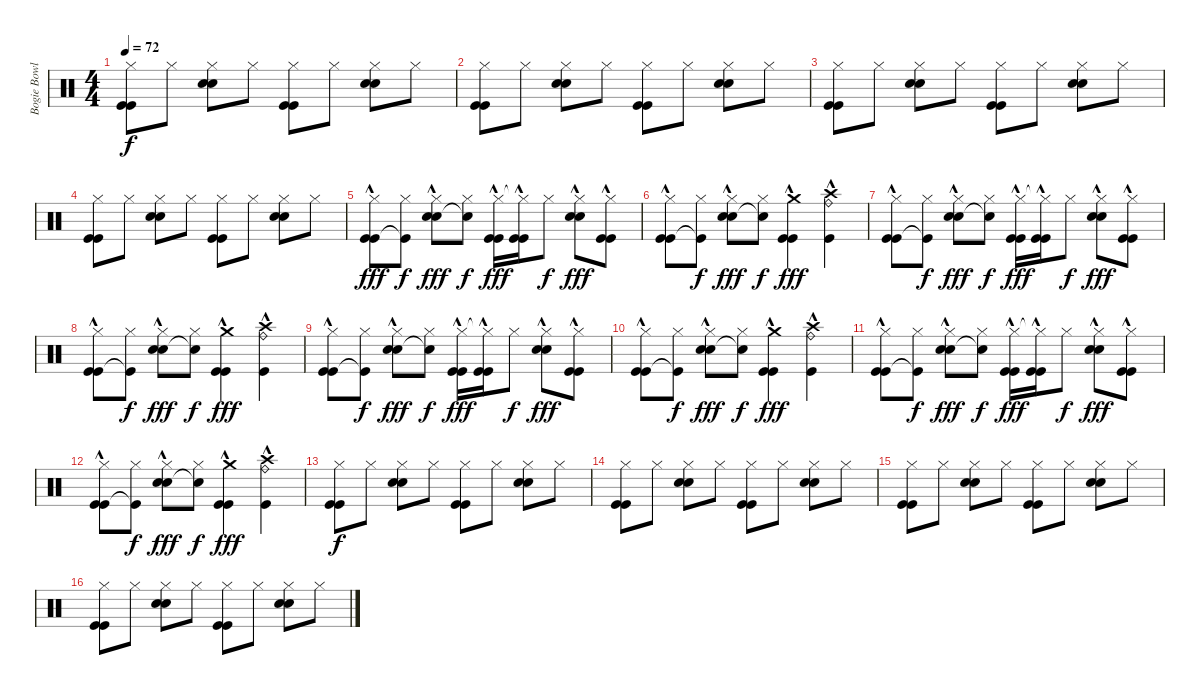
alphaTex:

\track ("Bogie Bowles" "Bogie Bowl") {instrument percussion}
\staff {score}
\articulation defaults
\ts (4 4)
\tempo 72
\clef neutral
\ks c
("Hi-Hat (closed)" "Kick (hit)" "Kick (hit)").8{dy f} "Hi-Hat (closed)".8 ("Hi-Hat (closed)" "Snare (hit) 2" "Snare (hit) 2").8 "Hi-Hat (closed)".8 ("Hi-Hat (closed)" "Kick (hit)" "Kick (hit)").8 "Hi-Hat (closed)".8 ("Hi-Hat (closed)" "Snare (hit) 2" "Snare (hit) 2").8 "Hi-Hat (closed)".8 |
("Hi-Hat (closed)" "Kick (hit)" "Kick (hit)").8 "Hi-Hat (closed)".8 ("Hi-Hat (closed)" "Snare (hit) 2" "Snare (hit) 2").8 "Hi-Hat (closed)".8 ("Hi-Hat (closed)" "Kick (hit)" "Kick (hit)").8 "Hi-Hat (closed)".8 ("Hi-Hat (closed)" "Snare (hit) 2" "Snare (hit) 2").8 "Hi-Hat (closed)".8 |
("Hi-Hat (closed)" "Kick (hit)" "Kick (hit)").8 "Hi-Hat (closed)".8 ("Hi-Hat (closed)" "Snare (hit) 2" "Snare (hit) 2").8 "Hi-Hat (closed)".8 ("Hi-Hat (closed)" "Kick (hit)" "Kick (hit)").8 "Hi-Hat (closed)".8 ("Hi-Hat (closed)" "Snare (hit) 2" "Snare (hit) 2").8 "Hi-Hat (closed)".8 |
("Hi-Hat (closed)" "Kick (hit)" "Kick (hit)").8 "Hi-Hat (closed)".8 ("Hi-Hat (closed)" "Snare (hit) 2" "Snare (hit) 2").8 "Hi-Hat (closed)".8 ("Hi-Hat (closed)" "Kick (hit)" "Kick (hit)").8 "Hi-Hat (closed)".8 ("Hi-Hat (closed)" "Snare (hit) 2" "Snare (hit) 2").8 "Hi-Hat (closed)".8 |
("Hi-Hat (closed)" "Kick (hit)"{hac} "Kick (hit)"{hac}).8{dy fff} ("Hi-Hat (closed)" "Kick (hit)"{t}).8{dy f} ("Hi-Hat (closed)" "Snare (hit) 2"{hac} "Snare (hit) 2"{hac}).8{dy fff} ("Hi-Hat (closed)" "Snare (hit) 2"{t}).8{dy f} ("Hi-Hat (closed)" "Kick (hit)"{hac} "Kick (hit)"{hac}).16{dy fff} ("Hi-Hat (closed)"{t} "Kick (hit)"{hac} "Kick (hit)"{hac}).16 "Hi-Hat (closed)".8{dy f} ("Hi-Hat (closed)" "Snare (hit) 2"{hac} "Snare (hit) 2"{hac}).8{dy fff} ("Hi-Hat (closed)" "Kick (hit)"{hac} "Kick (hit)"{hac}).8 |
("Hi-Hat (closed)" "Kick (hit)"{hac} "Kick (hit)"{hac}).8 ("Hi-Hat (closed)" "Kick (hit)"{t}).8{dy f} ("Hi-Hat (closed)" "Snare (hit) 2"{hac} "Snare (hit) 2"{hac}).8{dy fff} ("Hi-Hat (closed)" "Snare (hit) 2"{t}).8{dy f} ("Crash medium (hit)" "Kick (hit)"{hac} "Kick (hit)"{hac}).4{dy fff} ("Crash high (hit)" "Kick (hit)"{hac} "Ride (bell)"{hac}).4 |
("Hi-Hat (closed)" "Kick (hit)"{hac} "Kick (hit)"{hac}).8 ("Hi-Hat (closed)" "Kick (hit)"{t}).8{dy f} ("Hi-Hat (closed)" "Snare (hit) 2"{hac} "Snare (hit) 2"{hac}).8{dy fff} ("Hi-Hat (closed)" "Snare (hit) 2"{t}).8{dy f} ("Hi-Hat (closed)" "Kick (hit)"{hac} "Kick (hit)"{hac}).16{dy fff} ("Hi-Hat (closed)"{t} "Kick (hit)"{hac} "Kick (hit)"{hac}).16 "Hi-Hat (closed)".8{dy f} ("Hi-Hat (closed)" "Snare (hit) 2"{hac} "Snare (hit) 2"{hac}).8{dy fff} ("Hi-Hat (closed)" "Kick (hit)"{hac} "Kick (hit)"{hac}).8 |
("Hi-Hat (closed)" "Kick (hit)"{hac} "Kick (hit)"{hac}).8 ("Hi-Hat (closed)" "Kick (hit)"{t}).8{dy f} ("Hi-Hat (closed)" "Snare (hit) 2"{hac} "Snare (hit) 2"{hac}).8{dy fff} ("Hi-Hat (closed)" "Snare (hit) 2"{t}).8{dy f} ("Crash medium (hit)" "Kick (hit)"{hac} "Kick (hit)"{hac}).4{dy fff} ("Crash high (hit)" "Kick (hit)"{hac} "Ride (bell)"{hac}).4 |
("Hi-Hat (closed)" "Kick (hit)"{hac} "Kick (hit)"{hac}).8 ("Hi-Hat (closed)" "Kick (hit)"{t}).8{dy f} ("Hi-Hat (closed)" "Snare (hit) 2"{hac} "Snare (hit) 2"{hac}).8{dy fff} ("Hi-Hat (closed)" "Snare (hit) 2"{t}).8{dy f} ("Hi-Hat (closed)" "Kick (hit)"{hac} "Kick (hit)"{hac}).16{dy fff} ("Hi-Hat (closed)"{t} "Kick (hit)"{hac} "Kick (hit)"{hac}).16 "Hi-Hat (closed)".8{dy f} ("Hi-Hat (closed)" "Snare (hit) 2"{hac} "Snare (hit) 2"{hac}).8{dy fff} ("Hi-Hat (closed)" "Kick (hit)"{hac} "Kick (hit)"{hac}).8 |
("Hi-Hat (closed)" "Kick (hit)"{hac} "Kick (hit)"{hac}).8 ("Hi-Hat (closed)" "Kick (hit)"{t}).8{dy f} ("Hi-Hat (closed)" "Snare (hit) 2"{hac} "Snare (hit) 2"{hac}).8{dy fff} ("Hi-Hat (closed)" "Snare (hit) 2"{t}).8{dy f} ("Crash medium (hit)" "Kick (hit)"{hac} "Kick (hit)"{hac}).4{dy fff} ("Crash high (hit)" "Kick (hit)"{hac} "Ride (bell)"{hac}).4 |
("Hi-Hat (closed)" "Kick (hit)"{hac} "Kick (hit)"{hac}).8 ("Hi-Hat (closed)" "Kick (hit)"{t}).8{dy f} ("Hi-Hat (closed)" "Snare (hit) 2"{hac} "Snare (hit) 2"{hac}).8{dy fff} ("Hi-Hat (closed)" "Snare (hit) 2"{t}).8{dy f} ("Hi-Hat (closed)" "Kick (hit)"{hac} "Kick (hit)"{hac}).16{dy fff} ("Hi-Hat (closed)"{t} "Kick (hit)"{hac} "Kick (hit)"{hac}).16 "Hi-Hat (closed)".8{dy f} ("Hi-Hat (closed)" "Snare (hit) 2"{hac} "Snare (hit) 2"{hac}).8{dy fff} ("Hi-Hat (closed)" "Kick (hit)"{hac} "Kick (hit)"{hac}).8 |
("Hi-Hat (closed)" "Kick (hit)"{hac} "Kick (hit)"{hac}).8 ("Hi-Hat (closed)" "Kick (hit)"{t}).8{dy f} ("Hi-Hat (closed)" "Snare (hit) 2"{hac} "Snare (hit) 2"{hac}).8{dy fff} ("Hi-Hat (closed)" "Snare (hit) 2"{t}).8{dy f} ("Crash medium (hit)" "Kick (hit)"{hac} "Kick (hit)"{hac}).4{dy fff} ("Crash high (hit)" "Kick (hit)"{hac} "Ride (bell)"{hac}).4 |
("Hi-Hat (closed)" "Kick (hit)" "Kick (hit)").8{dy f} "Hi-Hat (closed)".8 ("Hi-Hat (closed)" "Snare (hit) 2" "Snare (hit) 2").8 "Hi-Hat (closed)".8 ("Hi-Hat (closed)" "Kick (hit)" "Kick (hit)").8 "Hi-Hat (closed)".8 ("Hi-Hat (closed)" "Snare (hit) 2" "Snare (hit) 2").8 "Hi-Hat (closed)".8 |
("Hi-Hat (closed)" "Kick (hit)" "Kick (hit)").8 "Hi-Hat (closed)".8 ("Hi-Hat (closed)" "Snare (hit) 2" "Snare (hit) 2").8 "Hi-Hat (closed)".8 ("Hi-Hat (closed)" "Kick (hit)" "Kick (hit)").8 "Hi-Hat (closed)".8 ("Hi-Hat (closed)" "Snare (hit) 2" "Snare (hit) 2").8 "Hi-Hat (closed)".8 |
("Hi-Hat (closed)" "Kick (hit)" "Kick (hit)").8 "Hi-Hat (closed)".8 ("Hi-Hat (closed)" "Snare (hit) 2" "Snare (hit) 2").8 "Hi-Hat (closed)".8 ("Hi-Hat (closed)" "Kick (hit)" "Kick (hit)").8 "Hi-Hat (closed)".8 ("Hi-Hat (closed)" "Snare (hit) 2" "Snare (hit) 2").8 "Hi-Hat (closed)".8 |
("Hi-Hat (closed)" "Kick (hit)" "Kick (hit)").8 "Hi-Hat (closed)".8 ("Hi-Hat (closed)" "Snare (hit) 2" "Snare (hit) 2").8 "Hi-Hat (closed)".8 ("Hi-Hat (closed)" "Kick (hit)" "Kick (hit)").8 "Hi-Hat (closed)".8 ("Hi-Hat (closed)" "Snare (hit) 2" "Snare (hit) 2").8 "Hi-Hat (closed)".8
